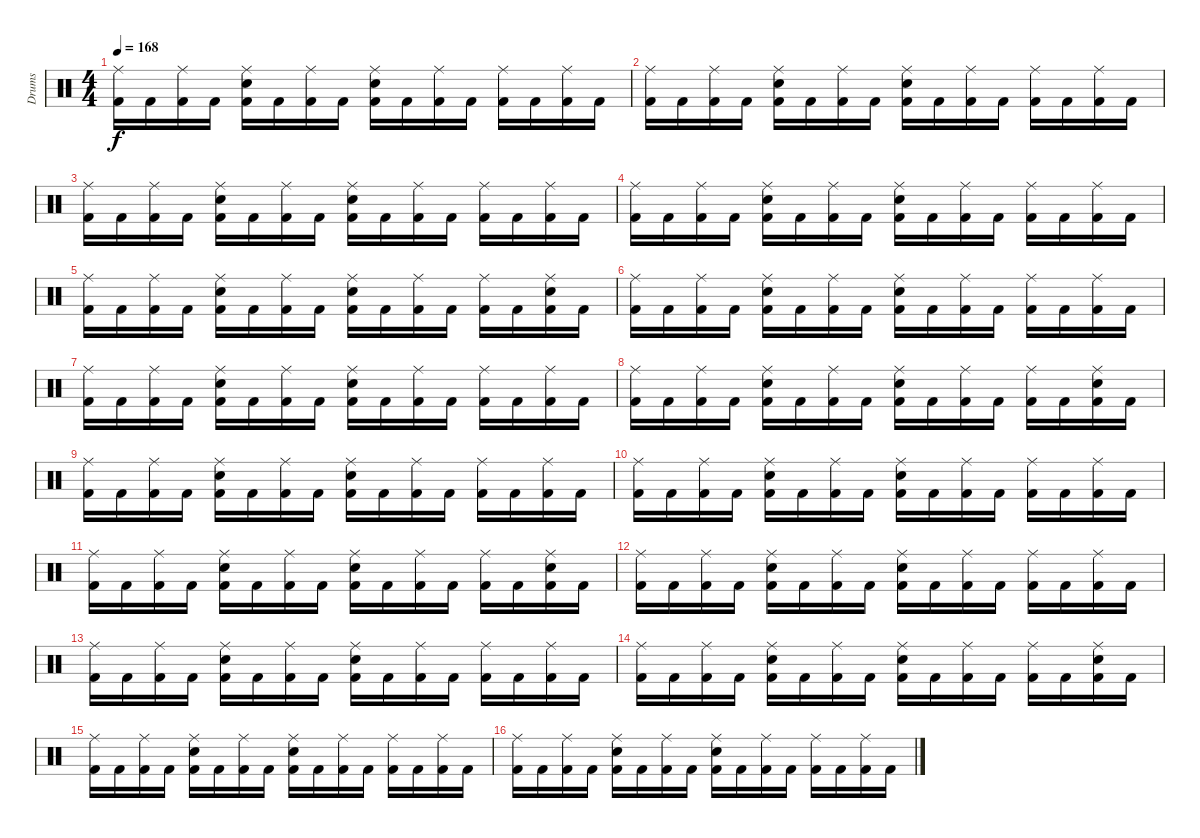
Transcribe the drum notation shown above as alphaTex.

\track ("Drums" "Drums") {instrument percussion}
\staff {score}
\articulation defaults
\ts (4 4)
\tempo 168
\clef neutral
\ks c
("Kick (hit) 2" "Ride (middle)").16{dy f} "Kick (hit) 2".16 ("Kick (hit) 2" "Ride (middle)").16 "Kick (hit) 2".16 ("Kick (hit) 2" "Snare (hit) 2" "Ride (middle)").16 "Kick (hit) 2".16 ("Kick (hit) 2" "Ride (middle)").16 "Kick (hit) 2".16 ("Kick (hit) 2" "Snare (hit) 2" "Ride (middle)").16 "Kick (hit) 2".16 ("Kick (hit) 2" "Ride (middle)").16 "Kick (hit) 2".16 ("Kick (hit) 2" "Ride (middle)").16 "Kick (hit) 2".16 ("Kick (hit) 2" "Ride (middle)").16 "Kick (hit) 2".16 |
("Kick (hit) 2" "Ride (middle)").16 "Kick (hit) 2".16 ("Kick (hit) 2" "Ride (middle)").16 "Kick (hit) 2".16 ("Kick (hit) 2" "Snare (hit) 2" "Ride (middle)").16 "Kick (hit) 2".16 ("Kick (hit) 2" "Ride (middle)").16 "Kick (hit) 2".16 ("Kick (hit) 2" "Snare (hit) 2" "Ride (middle)").16 "Kick (hit) 2".16 ("Kick (hit) 2" "Ride (middle)").16 "Kick (hit) 2".16 ("Kick (hit) 2" "Ride (middle)").16 "Kick (hit) 2".16 ("Kick (hit) 2" "Ride (middle)").16 "Kick (hit) 2".16 |
("Kick (hit) 2" "Ride (middle)").16 "Kick (hit) 2".16 ("Kick (hit) 2" "Ride (middle)").16 "Kick (hit) 2".16 ("Kick (hit) 2" "Snare (hit) 2" "Ride (middle)").16 "Kick (hit) 2".16 ("Kick (hit) 2" "Ride (middle)").16 "Kick (hit) 2".16 ("Kick (hit) 2" "Snare (hit) 2" "Ride (middle)").16 "Kick (hit) 2".16 ("Kick (hit) 2" "Ride (middle)").16 "Kick (hit) 2".16 ("Kick (hit) 2" "Ride (middle)").16 "Kick (hit) 2".16 ("Kick (hit) 2" "Ride (middle)").16 "Kick (hit) 2".16 |
("Kick (hit) 2" "Ride (middle)").16 "Kick (hit) 2".16 ("Kick (hit) 2" "Ride (middle)").16 "Kick (hit) 2".16 ("Kick (hit) 2" "Snare (hit) 2" "Ride (middle)").16 "Kick (hit) 2".16 ("Kick (hit) 2" "Ride (middle)").16 "Kick (hit) 2".16 ("Kick (hit) 2" "Snare (hit) 2" "Ride (middle)").16 "Kick (hit) 2".16 ("Kick (hit) 2" "Ride (middle)").16 "Kick (hit) 2".16 ("Kick (hit) 2" "Ride (middle)").16 "Kick (hit) 2".16 ("Kick (hit) 2" "Ride (middle)").16 "Kick (hit) 2".16 |
("Kick (hit) 2" "Ride (middle)").16 "Kick (hit) 2".16 ("Kick (hit) 2" "Ride (middle)").16 "Kick (hit) 2".16 ("Kick (hit) 2" "Snare (hit) 2" "Ride (middle)").16 "Kick (hit) 2".16 ("Kick (hit) 2" "Ride (middle)").16 "Kick (hit) 2".16 ("Kick (hit) 2" "Snare (hit) 2" "Ride (middle)").16 "Kick (hit) 2".16 ("Kick (hit) 2" "Ride (middle)").16 "Kick (hit) 2".16 ("Kick (hit) 2" "Ride (middle)").16 "Kick (hit) 2".16 ("Kick (hit) 2" "Snare (hit) 2" "Ride (middle)").16 "Kick (hit) 2".16 |
("Kick (hit) 2" "Ride (middle)").16 "Kick (hit) 2".16 ("Kick (hit) 2" "Ride (middle)").16 "Kick (hit) 2".16 ("Kick (hit) 2" "Snare (hit) 2" "Ride (middle)").16 "Kick (hit) 2".16 ("Kick (hit) 2" "Ride (middle)").16 "Kick (hit) 2".16 ("Kick (hit) 2" "Snare (hit) 2" "Ride (middle)").16 "Kick (hit) 2".16 ("Kick (hit) 2" "Ride (middle)").16 "Kick (hit) 2".16 ("Kick (hit) 2" "Ride (middle)").16 "Kick (hit) 2".16 ("Kick (hit) 2" "Ride (middle)").16 "Kick (hit) 2".16 |
("Kick (hit) 2" "Ride (middle)").16 "Kick (hit) 2".16 ("Kick (hit) 2" "Ride (middle)").16 "Kick (hit) 2".16 ("Kick (hit) 2" "Snare (hit) 2" "Ride (middle)").16 "Kick (hit) 2".16 ("Kick (hit) 2" "Ride (middle)").16 "Kick (hit) 2".16 ("Kick (hit) 2" "Snare (hit) 2" "Ride (middle)").16 "Kick (hit) 2".16 ("Kick (hit) 2" "Ride (middle)").16 "Kick (hit) 2".16 ("Kick (hit) 2" "Ride (middle)").16 "Kick (hit) 2".16 ("Kick (hit) 2" "Ride (middle)").16 "Kick (hit) 2".16 |
("Kick (hit) 2" "Ride (middle)").16{volume 12} "Kick (hit) 2".16 ("Kick (hit) 2" "Ride (middle)").16 "Kick (hit) 2".16 ("Kick (hit) 2" "Snare (hit) 2" "Ride (middle)").16 "Kick (hit) 2".16 ("Kick (hit) 2" "Ride (middle)").16 "Kick (hit) 2".16 ("Kick (hit) 2" "Snare (hit) 2" "Ride (middle)").16 "Kick (hit) 2".16 ("Kick (hit) 2" "Ride (middle)").16 "Kick (hit) 2".16 ("Kick (hit) 2" "Ride (middle)").16 "Kick (hit) 2".16 ("Kick (hit) 2" "Snare (hit) 2" "Ride (middle)").16 "Kick (hit) 2".16 |
("Kick (hit) 2" "Ride (middle)").16{volume 8} "Kick (hit) 2".16 ("Kick (hit) 2" "Ride (middle)").16 "Kick (hit) 2".16 ("Kick (hit) 2" "Snare (hit) 2" "Ride (middle)").16 "Kick (hit) 2".16 ("Kick (hit) 2" "Ride (middle)").16 "Kick (hit) 2".16 ("Kick (hit) 2" "Snare (hit) 2" "Ride (middle)").16 "Kick (hit) 2".16 ("Kick (hit) 2" "Ride (middle)").16 "Kick (hit) 2".16 ("Kick (hit) 2" "Ride (middle)").16 "Kick (hit) 2".16 ("Kick (hit) 2" "Ride (middle)").16 "Kick (hit) 2".16 |
("Kick (hit) 2" "Ride (middle)").16{volume 8} "Kick (hit) 2".16 ("Kick (hit) 2" "Ride (middle)").16 "Kick (hit) 2".16 ("Kick (hit) 2" "Snare (hit) 2" "Ride (middle)").16 "Kick (hit) 2".16 ("Kick (hit) 2" "Ride (middle)").16 "Kick (hit) 2".16 ("Kick (hit) 2" "Snare (hit) 2" "Ride (middle)").16 "Kick (hit) 2".16 ("Kick (hit) 2" "Ride (middle)").16 "Kick (hit) 2".16 ("Kick (hit) 2" "Ride (middle)").16 "Kick (hit) 2".16 ("Kick (hit) 2" "Ride (middle)").16 "Kick (hit) 2".16 |
("Kick (hit) 2" "Ride (middle)").16{volume 6} "Kick (hit) 2".16 ("Kick (hit) 2" "Ride (middle)").16 "Kick (hit) 2".16 ("Kick (hit) 2" "Snare (hit) 2" "Ride (middle)").16 "Kick (hit) 2".16 ("Kick (hit) 2" "Ride (middle)").16 "Kick (hit) 2".16 ("Kick (hit) 2" "Snare (hit) 2" "Ride (middle)").16 "Kick (hit) 2".16 ("Kick (hit) 2" "Ride (middle)").16 "Kick (hit) 2".16 ("Kick (hit) 2" "Ride (middle)").16 "Kick (hit) 2".16 ("Kick (hit) 2" "Snare (hit) 2" "Ride (middle)").16 "Kick (hit) 2".16 |
("Kick (hit) 2" "Ride (middle)").16{volume 4} "Kick (hit) 2".16 ("Kick (hit) 2" "Ride (middle)").16 "Kick (hit) 2".16 ("Kick (hit) 2" "Snare (hit) 2" "Ride (middle)").16 "Kick (hit) 2".16 ("Kick (hit) 2" "Ride (middle)").16 "Kick (hit) 2".16 ("Kick (hit) 2" "Snare (hit) 2" "Ride (middle)").16 "Kick (hit) 2".16 ("Kick (hit) 2" "Ride (middle)").16 "Kick (hit) 2".16 ("Kick (hit) 2" "Ride (middle)").16 "Kick (hit) 2".16 ("Kick (hit) 2" "Ride (middle)").16 "Kick (hit) 2".16 |
("Kick (hit) 2" "Ride (middle)").16 "Kick (hit) 2".16 ("Kick (hit) 2" "Ride (middle)").16 "Kick (hit) 2".16 ("Kick (hit) 2" "Snare (hit) 2" "Ride (middle)").16 "Kick (hit) 2".16 ("Kick (hit) 2" "Ride (middle)").16 "Kick (hit) 2".16 ("Kick (hit) 2" "Snare (hit) 2" "Ride (middle)").16 "Kick (hit) 2".16 ("Kick (hit) 2" "Ride (middle)").16 "Kick (hit) 2".16 ("Kick (hit) 2" "Ride (middle)").16 "Kick (hit) 2".16 ("Kick (hit) 2" "Ride (middle)").16 "Kick (hit) 2".16 |
("Kick (hit) 2" "Ride (middle)").16 "Kick (hit) 2".16 ("Kick (hit) 2" "Ride (middle)").16 "Kick (hit) 2".16 ("Kick (hit) 2" "Snare (hit) 2" "Ride (middle)").16 "Kick (hit) 2".16 ("Kick (hit) 2" "Ride (middle)").16 "Kick (hit) 2".16 ("Kick (hit) 2" "Snare (hit) 2" "Ride (middle)").16 "Kick (hit) 2".16 ("Kick (hit) 2" "Ride (middle)").16 "Kick (hit) 2".16 ("Kick (hit) 2" "Ride (middle)").16 "Kick (hit) 2".16 ("Kick (hit) 2" "Snare (hit) 2" "Ride (middle)").16 "Kick (hit) 2".16 |
("Kick (hit) 2" "Ride (middle)").16{volume 2} "Kick (hit) 2".16 ("Kick (hit) 2" "Ride (middle)").16 "Kick (hit) 2".16 ("Kick (hit) 2" "Snare (hit) 2" "Ride (middle)").16 "Kick (hit) 2".16 ("Kick (hit) 2" "Ride (middle)").16 "Kick (hit) 2".16 ("Kick (hit) 2" "Snare (hit) 2" "Ride (middle)").16 "Kick (hit) 2".16 ("Kick (hit) 2" "Ride (middle)").16 "Kick (hit) 2".16 ("Kick (hit) 2" "Ride (middle)").16 "Kick (hit) 2".16 ("Kick (hit) 2" "Ride (middle)").16 "Kick (hit) 2".16 |
("Kick (hit) 2" "Ride (middle)").16 "Kick (hit) 2".16 ("Kick (hit) 2" "Ride (middle)").16 "Kick (hit) 2".16 ("Kick (hit) 2" "Snare (hit) 2" "Ride (middle)").16 "Kick (hit) 2".16 ("Kick (hit) 2" "Ride (middle)").16 "Kick (hit) 2".16 ("Kick (hit) 2" "Snare (hit) 2" "Ride (middle)").16 "Kick (hit) 2".16 ("Kick (hit) 2" "Ride (middle)").16 "Kick (hit) 2".16 ("Kick (hit) 2" "Ride (middle)").16 "Kick (hit) 2".16 ("Kick (hit) 2" "Ride (middle)").16 "Kick (hit) 2".16
